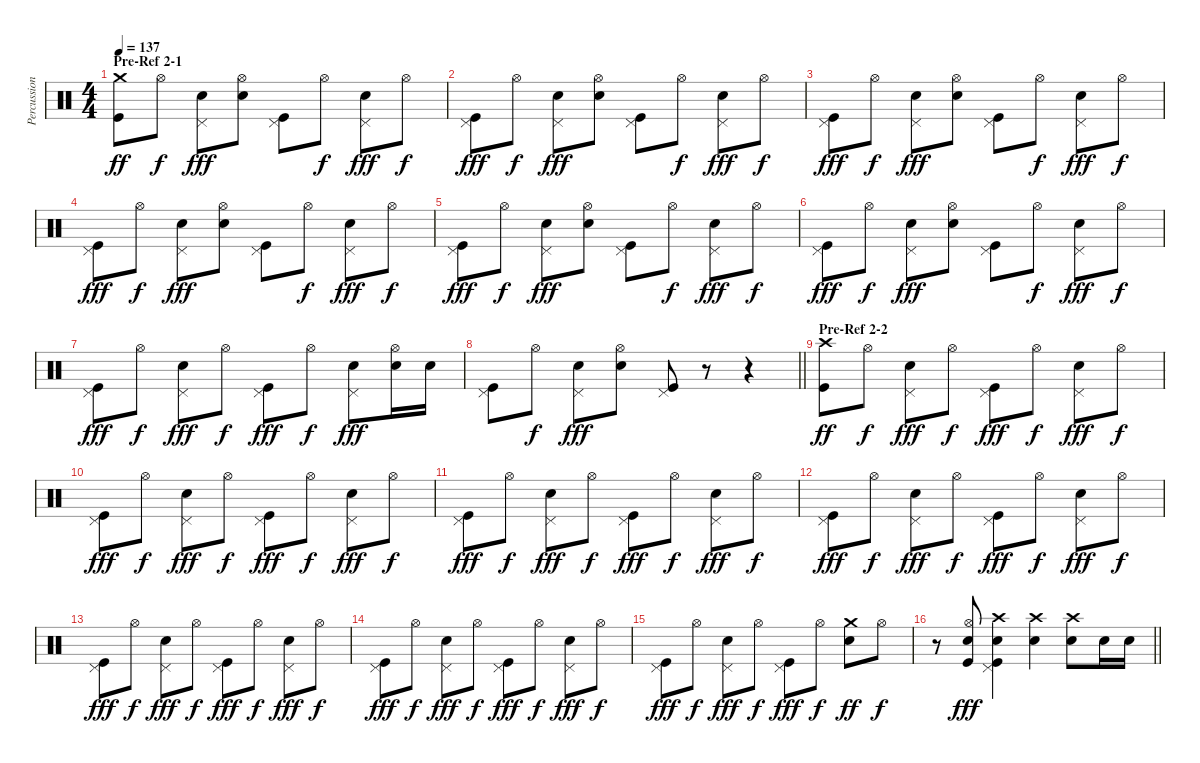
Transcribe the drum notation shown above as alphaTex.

\track ("Percussions" "Percussion") {instrument percussion}
\staff {score}
\articulation defaults
\ts (4 4)
\section ("" "Pre-Ref 2-1")
\tempo 137
\clef neutral
\ks c
("Kick (hit)" "Crash medium (hit)").8{dy ff} "Hi-Hat (open)".8{dy f} ("Electric Snare (hit)" "Pedal Hi-Hat (hit)").8{dy fff} ("Electric Snare (hit)" "Hi-Hat (open)").8 ("Kick (hit)" "Pedal Hi-Hat (hit)").8 "Hi-Hat (open)".8{dy f} ("Electric Snare (hit)" "Pedal Hi-Hat (hit)").8{dy fff} "Hi-Hat (open)".8{dy f} |
("Kick (hit)" "Pedal Hi-Hat (hit)").8{dy fff} "Hi-Hat (open)".8{dy f} ("Electric Snare (hit)" "Pedal Hi-Hat (hit)").8{dy fff} ("Electric Snare (hit)" "Hi-Hat (open)").8 ("Kick (hit)" "Pedal Hi-Hat (hit)").8 "Hi-Hat (open)".8{dy f} ("Electric Snare (hit)" "Pedal Hi-Hat (hit)").8{dy fff} "Hi-Hat (open)".8{dy f} |
("Kick (hit)" "Pedal Hi-Hat (hit)").8{dy fff} "Hi-Hat (open)".8{dy f} ("Electric Snare (hit)" "Pedal Hi-Hat (hit)").8{dy fff} ("Electric Snare (hit)" "Hi-Hat (open)").8 ("Kick (hit)" "Pedal Hi-Hat (hit)").8 "Hi-Hat (open)".8{dy f} ("Electric Snare (hit)" "Pedal Hi-Hat (hit)").8{dy fff} "Hi-Hat (open)".8{dy f} |
("Kick (hit)" "Pedal Hi-Hat (hit)").8{dy fff} "Hi-Hat (open)".8{dy f} ("Electric Snare (hit)" "Pedal Hi-Hat (hit)").8{dy fff} ("Electric Snare (hit)" "Hi-Hat (open)").8 ("Kick (hit)" "Pedal Hi-Hat (hit)").8 "Hi-Hat (open)".8{dy f} ("Electric Snare (hit)" "Pedal Hi-Hat (hit)").8{dy fff} "Hi-Hat (open)".8{dy f} |
("Kick (hit)" "Pedal Hi-Hat (hit)").8{dy fff} "Hi-Hat (open)".8{dy f} ("Electric Snare (hit)" "Pedal Hi-Hat (hit)").8{dy fff} ("Electric Snare (hit)" "Hi-Hat (open)").8 ("Kick (hit)" "Pedal Hi-Hat (hit)").8 "Hi-Hat (open)".8{dy f} ("Electric Snare (hit)" "Pedal Hi-Hat (hit)").8{dy fff} "Hi-Hat (open)".8{dy f} |
("Kick (hit)" "Pedal Hi-Hat (hit)").8{dy fff} "Hi-Hat (open)".8{dy f} ("Electric Snare (hit)" "Pedal Hi-Hat (hit)").8{dy fff} ("Electric Snare (hit)" "Hi-Hat (open)").8 ("Kick (hit)" "Pedal Hi-Hat (hit)").8 "Hi-Hat (open)".8{dy f} ("Electric Snare (hit)" "Pedal Hi-Hat (hit)").8{dy fff} "Hi-Hat (open)".8{dy f} |
("Kick (hit)" "Pedal Hi-Hat (hit)").8{dy fff} "Hi-Hat (open)".8{dy f} ("Electric Snare (hit)" "Pedal Hi-Hat (hit)").8{dy fff} "Hi-Hat (open)".8{dy f} ("Kick (hit)" "Pedal Hi-Hat (hit)").8{dy fff} "Hi-Hat (open)".8{dy f} ("Electric Snare (hit)" "Pedal Hi-Hat (hit)").8{dy fff} ("Electric Snare (hit)" "Hi-Hat (open)").16 "Electric Snare (hit)".16 |
\barLineRight lightlight
("Kick (hit)" "Pedal Hi-Hat (hit)").8 "Hi-Hat (open)".8{dy f} ("Electric Snare (hit)" "Pedal Hi-Hat (hit)").8{dy fff} ("Electric Snare (hit)" "Hi-Hat (open)").8 ("Kick (hit)" "Pedal Hi-Hat (hit)").8 r.8 r.4 |
\section ("" "Pre-Ref 2-2")
("Kick (hit)" "Crash high (hit)").8{dy ff} "Hi-Hat (open)".8{dy f} ("Electric Snare (hit)" "Pedal Hi-Hat (hit)").8{dy fff} "Hi-Hat (open)".8{dy f} ("Kick (hit)" "Pedal Hi-Hat (hit)").8{dy fff} "Hi-Hat (open)".8{dy f} ("Electric Snare (hit)" "Pedal Hi-Hat (hit)").8{dy fff} "Hi-Hat (open)".8{dy f} |
("Kick (hit)" "Pedal Hi-Hat (hit)").8{dy fff} "Hi-Hat (open)".8{dy f} ("Electric Snare (hit)" "Pedal Hi-Hat (hit)").8{dy fff} "Hi-Hat (open)".8{dy f} ("Kick (hit)" "Pedal Hi-Hat (hit)").8{dy fff} "Hi-Hat (open)".8{dy f} ("Electric Snare (hit)" "Pedal Hi-Hat (hit)").8{dy fff} "Hi-Hat (open)".8{dy f} |
("Kick (hit)" "Pedal Hi-Hat (hit)").8{dy fff} "Hi-Hat (open)".8{dy f} ("Electric Snare (hit)" "Pedal Hi-Hat (hit)").8{dy fff} "Hi-Hat (open)".8{dy f} ("Kick (hit)" "Pedal Hi-Hat (hit)").8{dy fff} "Hi-Hat (open)".8{dy f} ("Electric Snare (hit)" "Pedal Hi-Hat (hit)").8{dy fff} "Hi-Hat (open)".8{dy f} |
("Kick (hit)" "Pedal Hi-Hat (hit)").8{dy fff} "Hi-Hat (open)".8{dy f} ("Electric Snare (hit)" "Pedal Hi-Hat (hit)").8{dy fff} "Hi-Hat (open)".8{dy f} ("Kick (hit)" "Pedal Hi-Hat (hit)").8{dy fff} "Hi-Hat (open)".8{dy f} ("Electric Snare (hit)" "Pedal Hi-Hat (hit)").8{dy fff} "Hi-Hat (open)".8{dy f} |
("Kick (hit)" "Pedal Hi-Hat (hit)").8{dy fff} "Hi-Hat (open)".8{dy f} ("Electric Snare (hit)" "Pedal Hi-Hat (hit)").8{dy fff} "Hi-Hat (open)".8{dy f} ("Kick (hit)" "Pedal Hi-Hat (hit)").8{dy fff} "Hi-Hat (open)".8{dy f} ("Electric Snare (hit)" "Pedal Hi-Hat (hit)").8{dy fff} "Hi-Hat (open)".8{dy f} |
("Kick (hit)" "Pedal Hi-Hat (hit)").8{dy fff} "Hi-Hat (open)".8{dy f} ("Electric Snare (hit)" "Pedal Hi-Hat (hit)").8{dy fff} "Hi-Hat (open)".8{dy f} ("Kick (hit)" "Pedal Hi-Hat (hit)").8{dy fff} "Hi-Hat (open)".8{dy f} ("Electric Snare (hit)" "Pedal Hi-Hat (hit)").8{dy fff} "Hi-Hat (open)".8{dy f} |
("Kick (hit)" "Pedal Hi-Hat (hit)").8{dy fff} "Hi-Hat (open)".8{dy f} ("Electric Snare (hit)" "Pedal Hi-Hat (hit)").8{dy fff} "Hi-Hat (open)".8{dy f} ("Kick (hit)" "Pedal Hi-Hat (hit)").8{dy fff} "Hi-Hat (open)".8{dy f} ("Electric Snare (hit)" "Crash medium (hit)").8{dy ff} "Hi-Hat (open)".8{dy f} |
\barLineRight lightlight
r.8 ("Kick (hit)" "Electric Snare (hit)" "Hi-Hat (open)").8{dy fff} ("Kick (hit)" "Electric Snare (hit)" "Pedal Hi-Hat (hit)" "Crash high (hit)").4 ("Electric Snare (hit)" "Crash high (hit)").4 ("Electric Snare (hit)" "Crash high (hit)").8 "Electric Snare (hit)".16 "Electric Snare (hit)".16
